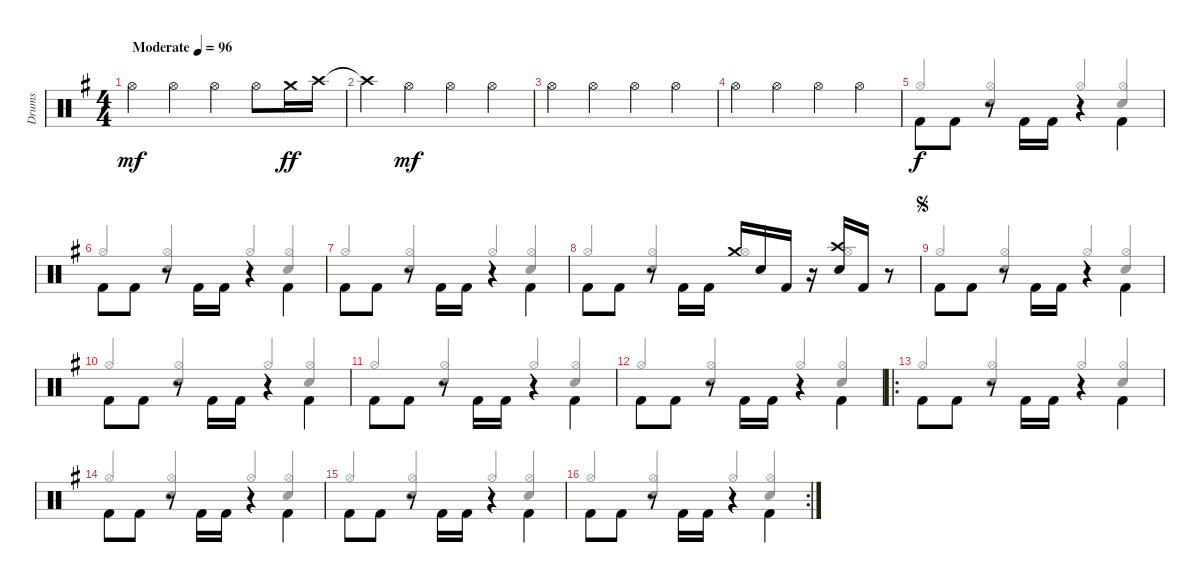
\track ("Drums" "Drums") {instrument percussion}
\staff {score}
\articulation defaults
\voice
\ts (4 4)
\tempo (96 "Moderate")
\clef neutral
\ks g "Hi-Hat (open)".4{dy mf} "Hi-Hat (open)".4 "Hi-Hat (open)".4 "Hi-Hat (open)".8 "Crash medium (hit)".16{dy ff} "Crash high (hit)".16
|
"Crash high (hit)"{t}.4 "Hi-Hat (open)".4{dy mf} "Hi-Hat (open)".4 "Hi-Hat (open)".4 |
"Hi-Hat (open)".4 "Hi-Hat (open)".4 "Hi-Hat (open)".4 "Hi-Hat (open)".4 |
"Hi-Hat (open)".4 "Hi-Hat (open)".4 "Hi-Hat (open)".4 "Hi-Hat (open)".4 |
"Kick (hit) 2".8{dy f beam Down} "Kick (hit) 2".8{beam Down} r.8 "Kick (hit) 2".16{beam Down} "Kick (hit) 2".16{beam Down} r.4 "Kick (hit) 2".4{beam Down} |
"Kick (hit) 2".8{beam Down} "Kick (hit) 2".8{beam Down} r.8 "Kick (hit) 2".16{beam Down} "Kick (hit) 2".16{beam Down} r.4 "Kick (hit) 2".4{beam Down} |
"Kick (hit) 2".8{beam Down} "Kick (hit) 2".8{beam Down} r.8 "Kick (hit) 2".16{beam Down} "Kick (hit) 2".16{beam Down} r.4 "Kick (hit) 2".4{beam Down} |
"Kick (hit) 2".8{beam Down} "Kick (hit) 2".8{beam Down} r.8 "Kick (hit) 2".16{beam Down} "Kick (hit) 2".16{beam Down} "Crash medium (hit)".16 "Snare (hit) 2".16 "Kick (hit) 2".16 r.16 ("Crash high (hit)" "Snare (hit) 2").16 "Kick (hit) 2".16 r.8 |
\jump segno "Kick (hit) 2".8{beam Down} "Kick (hit) 2".8{beam Down}
r.8 "Kick (hit) 2".16{beam Down} "Kick (hit) 2".16{beam Down} r.4 "Kick (hit) 2".4{beam Down} |
"Kick (hit) 2".8{beam Down} "Kick (hit) 2".8{beam Down} r.8 "Kick (hit) 2".16{beam Down} "Kick (hit) 2".16{beam Down} r.4 "Kick (hit) 2".4{beam Down} |
"Kick (hit) 2".8{beam Down} "Kick (hit) 2".8{beam Down} r.8 "Kick (hit) 2".16{beam Down} "Kick (hit) 2".16{beam Down} r.4 "Kick (hit) 2".4{beam Down} |
"Kick (hit) 2".8{beam Down} "Kick (hit) 2".8{beam Down} r.8 "Kick (hit) 2".16{beam Down} "Kick (hit) 2".16{beam Down} r.4 "Kick (hit) 2".4{beam Down} |
\ro "Kick (hit) 2".8{beam Down} "Kick (hit) 2".8{beam Down}
r.8 "Kick (hit) 2".16{beam Down} "Kick (hit) 2".16{beam Down} r.4 "Kick (hit) 2".4{beam Down} |
"Kick (hit) 2".8{beam Down} "Kick (hit) 2".8{beam Down} r.8 "Kick (hit) 2".16{beam Down} "Kick (hit) 2".16{beam Down} r.4 "Kick (hit) 2".4{beam Down} |
"Kick (hit) 2".8{beam Down} "Kick (hit) 2".8{beam Down} r.8 "Kick (hit) 2".16{beam Down} "Kick (hit) 2".16{beam Down} r.4 "Kick (hit) 2".4{beam Down} |
\rc 2 "Kick (hit) 2".8{beam Down} "Kick (hit) 2".8{beam Down}
r.8 "Kick (hit) 2".16{beam Down} "Kick (hit) 2".16{beam Down} r.4 "Kick (hit) 2".4{beam Down}
\voice
\clef neutral
\ottava regular
\simile none
\ks g
|
|
|
|
"Hi-Hat (open)".4{beam Up} ("Hi-Hat (open)" "Snare (hit) 2").4{beam Up} "Hi-Hat (open)".4{beam Up} ("Hi-Hat (open)" "Snare (hit) 2").4{beam Up} |
"Hi-Hat (open)".4{beam Up} ("Hi-Hat (open)" "Snare (hit) 2").4{beam Up} "Hi-Hat (open)".4{beam Up} ("Hi-Hat (open)" "Snare (hit) 2").4{beam Up} |
"Hi-Hat (open)".4{beam Up} ("Hi-Hat (open)" "Snare (hit) 2").4{beam Up} "Hi-Hat (open)".4{beam Up} ("Hi-Hat (open)" "Snare (hit) 2").4{beam Up} |
"Hi-Hat (open)".4{beam Up} ("Hi-Hat (open)" "Snare (hit) 2").4{beam Up} "Hi-Hat (open)".4{beam Up} "Hi-Hat (open)".4{beam Up} |
"Hi-Hat (open)".4{beam Up} ("Hi-Hat (open)" "Snare (hit) 2").4{beam Up} "Hi-Hat (open)".4{beam Up} ("Hi-Hat (open)" "Snare (hit) 2").4{beam Up} |
"Hi-Hat (open)".4{beam Up} ("Hi-Hat (open)" "Snare (hit) 2").4{beam Up} "Hi-Hat (open)".4{beam Up} ("Hi-Hat (open)" "Snare (hit) 2").4{beam Up} |
"Hi-Hat (open)".4{beam Up} ("Hi-Hat (open)" "Snare (hit) 2").4{beam Up} "Hi-Hat (open)".4{beam Up} ("Hi-Hat (open)" "Snare (hit) 2").4{beam Up} |
"Hi-Hat (open)".4{beam Up} ("Hi-Hat (open)" "Snare (hit) 2").4{beam Up} "Hi-Hat (open)".4{beam Up} ("Hi-Hat (open)" "Snare (hit) 2").4{beam Up} |
"Hi-Hat (open)".4{beam Up} ("Hi-Hat (open)" "Snare (hit) 2").4{beam Up} "Hi-Hat (open)".4{beam Up} ("Hi-Hat (open)" "Snare (hit) 2").4{beam Up} |
"Hi-Hat (open)".4{beam Up} ("Hi-Hat (open)" "Snare (hit) 2").4{beam Up} "Hi-Hat (open)".4{beam Up} ("Hi-Hat (open)" "Snare (hit) 2").4{beam Up} |
"Hi-Hat (open)".4{beam Up} ("Hi-Hat (open)" "Snare (hit) 2").4{beam Up} "Hi-Hat (open)".4{beam Up} ("Hi-Hat (open)" "Snare (hit) 2").4{beam Up} |
"Hi-Hat (open)".4{beam Up} ("Hi-Hat (open)" "Snare (hit) 2").4{beam Up} "Hi-Hat (open)".4{beam Up} ("Hi-Hat (open)" "Snare (hit) 2").4{beam Up}
